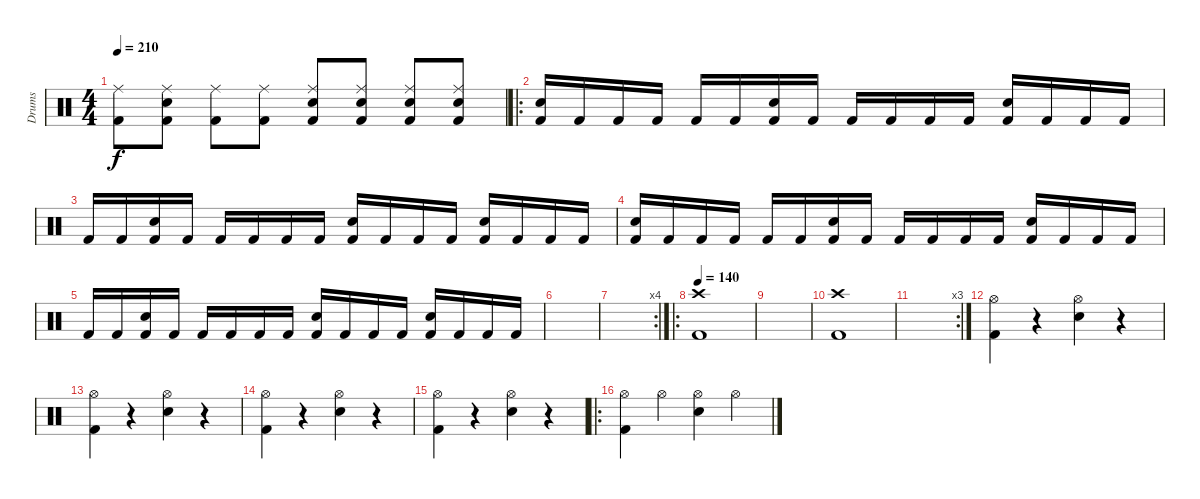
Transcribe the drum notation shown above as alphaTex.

\track ("Drums" "Drums") {instrument percussion}
\staff {score}
\articulation defaults
\ts (4 4)
\tempo 210
\clef neutral
\ks c
("Kick (hit) 2" "Ride (middle)").8{dy f} ("Kick (hit) 2" "Snare (hit) 2" "Ride (middle)").8 ("Kick (hit) 2" "Ride (middle)").8 ("Kick (hit) 2" "Ride (middle)").8 ("Kick (hit) 2" "Snare (hit) 2" "Ride (middle)").8 ("Kick (hit) 2" "Snare (hit) 2" "Ride (middle)").8 ("Kick (hit) 2" "Snare (hit) 2" "Ride (middle)").8 ("Kick (hit) 2" "Snare (hit) 2" "Ride (middle)").8 |
\ro
("Kick (hit) 2" "Snare (hit) 2").16 "Kick (hit) 2".16 "Kick (hit) 2".16 "Kick (hit) 2".16 "Kick (hit) 2".16 "Kick (hit) 2".16 ("Kick (hit) 2" "Snare (hit) 2").16 "Kick (hit) 2".16 "Kick (hit) 2".16 "Kick (hit) 2".16 "Kick (hit) 2".16 "Kick (hit) 2".16 ("Kick (hit) 2" "Snare (hit) 2").16 "Kick (hit) 2".16 "Kick (hit) 2".16 "Kick (hit) 2".16 |
"Kick (hit) 2".16 "Kick (hit) 2".16 ("Kick (hit) 2" "Snare (hit) 2").16 "Kick (hit) 2".16 "Kick (hit) 2".16 "Kick (hit) 2".16 "Kick (hit) 2".16 "Kick (hit) 2".16 ("Kick (hit) 2" "Snare (hit) 2").16 "Kick (hit) 2".16 "Kick (hit) 2".16 "Kick (hit) 2".16 ("Kick (hit) 2" "Snare (hit) 2").16 "Kick (hit) 2".16 "Kick (hit) 2".16 "Kick (hit) 2".16 |
("Kick (hit) 2" "Snare (hit) 2").16 "Kick (hit) 2".16 "Kick (hit) 2".16 "Kick (hit) 2".16 "Kick (hit) 2".16 "Kick (hit) 2".16 ("Kick (hit) 2" "Snare (hit) 2").16 "Kick (hit) 2".16 "Kick (hit) 2".16 "Kick (hit) 2".16 "Kick (hit) 2".16 "Kick (hit) 2".16 ("Kick (hit) 2" "Snare (hit) 2").16 "Kick (hit) 2".16 "Kick (hit) 2".16 "Kick (hit) 2".16 |
"Kick (hit) 2".16 "Kick (hit) 2".16 ("Kick (hit) 2" "Snare (hit) 2").16 "Kick (hit) 2".16 "Kick (hit) 2".16 "Kick (hit) 2".16 "Kick (hit) 2".16 "Kick (hit) 2".16 ("Kick (hit) 2" "Snare (hit) 2").16 "Kick (hit) 2".16 "Kick (hit) 2".16 "Kick (hit) 2".16 ("Kick (hit) 2" "Snare (hit) 2").16 "Kick (hit) 2".16 "Kick (hit) 2".16 "Kick (hit) 2".16 |
|
\rc 4
|
\ro
\tempo 140
("Kick (hit) 2" "Crash high (hit)").1 |
|
("Kick (hit) 2" "Crash high (hit)").1 |
\rc 3
|
("Kick (hit) 2" "Hi-Hat (open)").4 r.4 ("Snare (hit) 2" "Hi-Hat (open)").4 r.4 |
("Kick (hit) 2" "Hi-Hat (open)").4 r.4 ("Snare (hit) 2" "Hi-Hat (open)").4 r.4 |
("Kick (hit) 2" "Hi-Hat (open)").4 r.4 ("Snare (hit) 2" "Hi-Hat (open)").4 r.4 |
("Kick (hit) 2" "Hi-Hat (open)").4 r.4 ("Snare (hit) 2" "Hi-Hat (open)").4 r.4 |
\ro
("Kick (hit) 2" "Hi-Hat (open)").4 "Hi-Hat (open)".4 ("Snare (hit) 2" "Hi-Hat (open)").4 "Hi-Hat (open)".4
